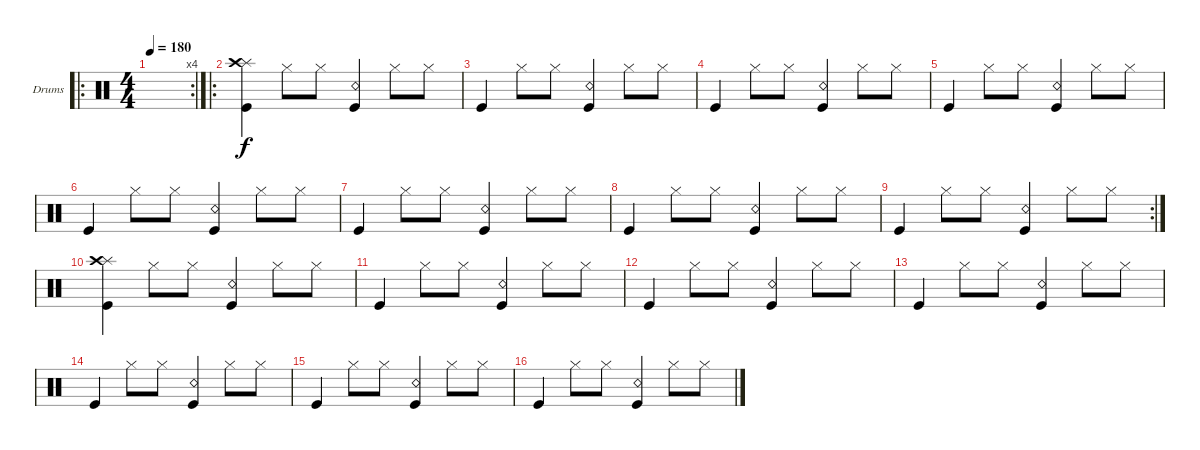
\defaultSystemsLayout 4
\bracketExtendMode groupsimilarinstruments
\firstSystemTrackNameOrientation horizontal
\otherSystemsTrackNameOrientation horizontal
\track ("Drumkit" "Drums") {instrument percussion}
\staff {score}
\articulation defaults
\ro
\rc 4
\ts (4 4)
\tempo 180
\clef neutral
\scale
0.487805
\ks c
|
\ro
\scale
0.280488 ("Kick (hit)" "Splash (hit)" "Crash high (hit)").4 "Hi-Hat (closed)".8 "Hi-Hat (closed)".8 ("Snare (rim shot)" "Kick (hit)").4 "Hi-Hat (closed)".8 "Hi-Hat (closed)".8 |
\scale
0.231707 "Kick (hit)".4 "Hi-Hat (closed)".8 "Hi-Hat (closed)".8 ("Snare (rim shot)" "Kick (hit)").4 "Hi-Hat (closed)".8 "Hi-Hat (closed)".8 |
\scale
0.333333 "Kick (hit)".4 "Hi-Hat (closed)".8 "Hi-Hat (closed)".8 ("Snare (rim shot)" "Kick (hit)").4 "Hi-Hat (closed)".8 "Hi-Hat (closed)".8 |
\scale
0.333333 "Kick (hit)".4 "Hi-Hat (closed)".8 "Hi-Hat (closed)".8 ("Snare (rim shot)" "Kick (hit)").4 "Hi-Hat (closed)".8 "Hi-Hat (closed)".8 |
\scale
0.333333 "Kick (hit)".4 "Hi-Hat (closed)".8 "Hi-Hat (closed)".8 ("Snare (rim shot)" "Kick (hit)").4 "Hi-Hat (closed)".8 "Hi-Hat (closed)".8 |
\scale
0.322034 "Kick (hit)".4 "Hi-Hat (closed)".8 "Hi-Hat (closed)".8 ("Snare (rim shot)" "Kick (hit)").4 "Hi-Hat (closed)".8 "Hi-Hat (closed)".8 |
\scale
0.322034 "Kick (hit)".4 "Hi-Hat (closed)".8 "Hi-Hat (closed)".8 ("Snare (rim shot)" "Kick (hit)").4 "Hi-Hat (closed)".8 "Hi-Hat (closed)".8 |
\rc 2
\scale
0.355932 "Kick (hit)".4 "Hi-Hat (closed)".8 "Hi-Hat (closed)".8 ("Snare (rim shot)" "Kick (hit)").4 "Hi-Hat (closed)".8 "Hi-Hat (closed)".8 |
\scale
0.333333 ("Kick (hit)" "Splash (hit)" "Crash high (hit)").4 "Hi-Hat (closed)".8 "Hi-Hat (closed)".8 ("Snare (rim shot)" "Kick (hit)").4 "Hi-Hat (closed)".8 "Hi-Hat (closed)".8 |
\scale
0.333333 "Kick (hit)".4 "Hi-Hat (closed)".8 "Hi-Hat (closed)".8 ("Snare (rim shot)" "Kick (hit)").4 "Hi-Hat (closed)".8 "Hi-Hat (closed)".8 |
\scale
0.333333 "Kick (hit)".4 "Hi-Hat (closed)".8 "Hi-Hat (closed)".8 ("Snare (rim shot)" "Kick (hit)").4 "Hi-Hat (closed)".8 "Hi-Hat (closed)".8 |
\scale
0.333333 "Kick (hit)".4 "Hi-Hat (closed)".8 "Hi-Hat (closed)".8 ("Snare (rim shot)" "Kick (hit)").4 "Hi-Hat (closed)".8 "Hi-Hat (closed)".8 |
\scale
0.333333 "Kick (hit)".4 "Hi-Hat (closed)".8 "Hi-Hat (closed)".8 ("Snare (rim shot)" "Kick (hit)").4 "Hi-Hat (closed)".8 "Hi-Hat (closed)".8 |
\scale
0.333333 "Kick (hit)".4 "Hi-Hat (closed)".8 "Hi-Hat (closed)".8 ("Snare (rim shot)" "Kick (hit)").4 "Hi-Hat (closed)".8 "Hi-Hat (closed)".8 |
\scale
0.333333 "Kick (hit)".4 "Hi-Hat (closed)".8 "Hi-Hat (closed)".8 ("Snare (rim shot)" "Kick (hit)").4 "Hi-Hat (closed)".8 "Hi-Hat (closed)".8
